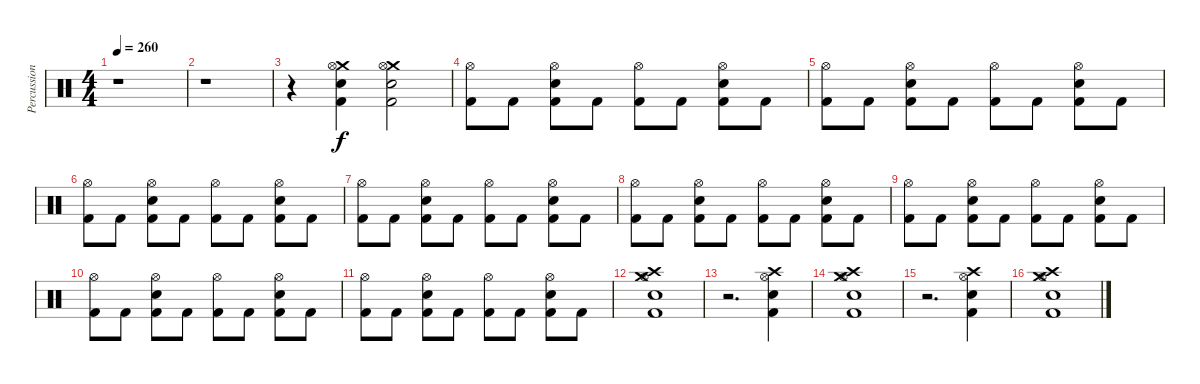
\track ("Percussion" "Percussion") {instrument percussion}
\staff {score}
\articulation defaults
\ts (4 4)
\tempo 260
\clef neutral
\ks c
r.1{dy f} |
r.1 |
r.4 ("Crash medium (hit)" "Hi-Hat (open)" "Electric Snare (hit)" "Kick (hit) 2").4 ("Crash medium (hit)" "Hi-Hat (open)" "Electric Snare (hit)" "Kick (hit) 2").2 |
("Hi-Hat (open)" "Kick (hit) 2").8 "Kick (hit) 2".8 ("Hi-Hat (open)" "Electric Snare (hit)" "Kick (hit) 2").8 "Kick (hit) 2".8 ("Hi-Hat (open)" "Kick (hit) 2").8 "Kick (hit) 2".8 ("Hi-Hat (open)" "Electric Snare (hit)" "Kick (hit) 2").8 "Kick (hit) 2".8 |
("Hi-Hat (open)" "Kick (hit) 2").8 "Kick (hit) 2".8 ("Hi-Hat (open)" "Electric Snare (hit)" "Kick (hit) 2").8 "Kick (hit) 2".8 ("Hi-Hat (open)" "Kick (hit) 2").8 "Kick (hit) 2".8 ("Hi-Hat (open)" "Electric Snare (hit)" "Kick (hit) 2").8 "Kick (hit) 2".8 |
("Hi-Hat (open)" "Kick (hit) 2").8 "Kick (hit) 2".8 ("Hi-Hat (open)" "Electric Snare (hit)" "Kick (hit) 2").8 "Kick (hit) 2".8 ("Hi-Hat (open)" "Kick (hit) 2").8 "Kick (hit) 2".8 ("Hi-Hat (open)" "Electric Snare (hit)" "Kick (hit) 2").8 "Kick (hit) 2".8 |
("Hi-Hat (open)" "Kick (hit) 2").8 "Kick (hit) 2".8 ("Hi-Hat (open)" "Electric Snare (hit)" "Kick (hit) 2").8 "Kick (hit) 2".8 ("Hi-Hat (open)" "Kick (hit) 2").8 "Kick (hit) 2".8 ("Hi-Hat (open)" "Electric Snare (hit)" "Kick (hit) 2").8 "Kick (hit) 2".8 |
("Hi-Hat (open)" "Kick (hit) 2").8 "Kick (hit) 2".8 ("Hi-Hat (open)" "Electric Snare (hit)" "Kick (hit) 2").8 "Kick (hit) 2".8 ("Hi-Hat (open)" "Kick (hit) 2").8 "Kick (hit) 2".8 ("Hi-Hat (open)" "Electric Snare (hit)" "Kick (hit) 2").8 "Kick (hit) 2".8 |
("Hi-Hat (open)" "Kick (hit) 2").8 "Kick (hit) 2".8 ("Hi-Hat (open)" "Electric Snare (hit)" "Kick (hit) 2").8 "Kick (hit) 2".8 ("Hi-Hat (open)" "Kick (hit) 2").8 "Kick (hit) 2".8 ("Hi-Hat (open)" "Electric Snare (hit)" "Kick (hit) 2").8 "Kick (hit) 2".8 |
("Hi-Hat (open)" "Kick (hit) 2").8 "Kick (hit) 2".8 ("Hi-Hat (open)" "Electric Snare (hit)" "Kick (hit) 2").8 "Kick (hit) 2".8 ("Hi-Hat (open)" "Kick (hit) 2").8 "Kick (hit) 2".8 ("Hi-Hat (open)" "Electric Snare (hit)" "Kick (hit) 2").8 "Kick (hit) 2".8 |
("Hi-Hat (open)" "Kick (hit) 2").8 "Kick (hit) 2".8 ("Hi-Hat (open)" "Electric Snare (hit)" "Kick (hit) 2").8 "Kick (hit) 2".8 ("Hi-Hat (open)" "Kick (hit) 2").8 "Kick (hit) 2".8 ("Hi-Hat (open)" "Electric Snare (hit)" "Kick (hit) 2").8 "Kick (hit) 2".8 |
("Crash medium (hit)" "Crash high (hit)" "Hi-Hat (open)" "Electric Snare (hit)" "Kick (hit) 2").1 |
r.2{d} ("Crash high (hit)" "Hi-Hat (open)" "Electric Snare (hit)" "Kick (hit) 2").4 |
("Crash medium (hit)" "Crash high (hit)" "Hi-Hat (open)" "Electric Snare (hit)" "Kick (hit) 2").1 |
r.2{d} ("Crash high (hit)" "Hi-Hat (open)" "Electric Snare (hit)" "Kick (hit) 2").4 |
("Crash medium (hit)" "Crash high (hit)" "Hi-Hat (open)" "Electric Snare (hit)" "Kick (hit) 2").1
